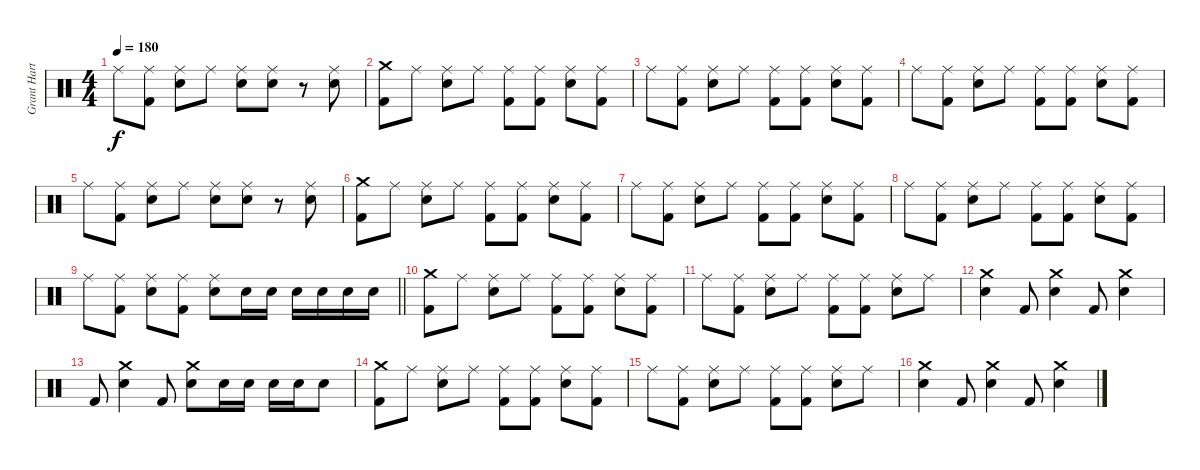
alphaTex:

\track ("Grant Hart - Drums" "Grant Hart") {instrument percussion}
\staff {score}
\articulation defaults
\ts (4 4)
\tempo 180
\clef neutral
\ks c "Ride (middle)".8{dy f}
("Ride (middle)" "Kick (hit) 2").8 ("Ride (middle)" "Electric Snare (hit)").8 "Ride (middle)".8 ("Ride (middle)" "Electric Snare (hit)").8 ("Ride (middle)" "Electric Snare (hit)").8 r.8 ("Ride (middle)" "Electric Snare (hit)").8 |
("Crash medium (hit)" "Kick (hit) 2").8 "Ride (middle)".8 ("Ride (middle)" "Electric Snare (hit)").8 "Ride (middle)".8 ("Ride (middle)" "Kick (hit) 2").8 ("Ride (middle)" "Kick (hit) 2").8 ("Ride (middle)" "Electric Snare (hit)").8 ("Ride (middle)" "Kick (hit) 2").8 |
"Ride (middle)".8 ("Ride (middle)" "Kick (hit) 2").8 ("Ride (middle)" "Electric Snare (hit)").8 "Ride (middle)".8 ("Ride (middle)" "Kick (hit) 2").8 ("Ride (middle)" "Kick (hit) 2").8 ("Ride (middle)" "Electric Snare (hit)").8 ("Ride (middle)" "Kick (hit) 2").8 |
"Ride (middle)".8 ("Ride (middle)" "Kick (hit) 2").8 ("Ride (middle)" "Electric Snare (hit)").8 "Ride (middle)".8 ("Ride (middle)" "Kick (hit) 2").8 ("Ride (middle)" "Kick (hit) 2").8 ("Ride (middle)" "Electric Snare (hit)").8 ("Ride (middle)" "Kick (hit) 2").8 |
"Ride (middle)".8 ("Ride (middle)" "Kick (hit) 2").8 ("Ride (middle)" "Electric Snare (hit)").8 "Ride (middle)".8 ("Ride (middle)" "Electric Snare (hit)").8 ("Ride (middle)" "Electric Snare (hit)").8 r.8 ("Ride (middle)" "Electric Snare (hit)").8 |
("Crash medium (hit)" "Kick (hit) 2").8 "Ride (middle)".8 ("Ride (middle)" "Electric Snare (hit)").8 "Ride (middle)".8 ("Ride (middle)" "Kick (hit) 2").8 ("Ride (middle)" "Kick (hit) 2").8 ("Ride (middle)" "Electric Snare (hit)").8 ("Ride (middle)" "Kick (hit) 2").8 |
"Ride (middle)".8 ("Ride (middle)" "Kick (hit) 2").8 ("Ride (middle)" "Electric Snare (hit)").8 "Ride (middle)".8 ("Ride (middle)" "Kick (hit) 2").8 ("Ride (middle)" "Kick (hit) 2").8 ("Ride (middle)" "Electric Snare (hit)").8 ("Ride (middle)" "Kick (hit) 2").8 |
"Ride (middle)".8 ("Ride (middle)" "Kick (hit) 2").8 ("Ride (middle)" "Electric Snare (hit)").8 "Ride (middle)".8 ("Ride (middle)" "Kick (hit) 2").8 ("Ride (middle)" "Kick (hit) 2").8 ("Ride (middle)" "Electric Snare (hit)").8 ("Ride (middle)" "Kick (hit) 2").8 |
\barLineRight lightlight "Ride (middle)".8
("Ride (middle)" "Kick (hit) 2").8 ("Ride (middle)" "Electric Snare (hit)").8 ("Ride (middle)" "Kick (hit) 2").8 ("Ride (middle)" "Electric Snare (hit)").8 "Electric Snare (hit)".16 "Electric Snare (hit)".16 "Electric Snare (hit)".16 "Electric Snare (hit)".16 "Electric Snare (hit)".16 "Electric Snare (hit)".16 |
("Crash medium (hit)" "Kick (hit) 2").8 "Ride (middle)".8 ("Ride (middle)" "Electric Snare (hit)").8 "Ride (middle)".8 ("Ride (middle)" "Kick (hit) 2").8 ("Ride (middle)" "Kick (hit) 2").8 ("Ride (middle)" "Electric Snare (hit)").8 ("Ride (middle)" "Kick (hit) 2").8 |
"Ride (middle)".8 ("Ride (middle)" "Kick (hit) 2").8 ("Ride (middle)" "Electric Snare (hit)").8 "Ride (middle)".8 ("Ride (middle)" "Kick (hit) 2").8 ("Ride (middle)" "Kick (hit) 2").8 ("Ride (middle)" "Electric Snare (hit)").8 "Ride (middle)".8 |
("Crash medium (hit)" "Electric Snare (hit)").4 "Kick (hit) 2".8 ("Crash medium (hit)" "Electric Snare (hit)").4 "Kick (hit) 2".8 ("Crash medium (hit)" "Electric Snare (hit)").4 |
"Kick (hit) 2".8 ("Crash medium (hit)" "Electric Snare (hit)").4 "Kick (hit) 2".8 ("Crash medium (hit)" "Electric Snare (hit)").8 "Electric Snare (hit)".16 "Electric Snare (hit)".16 "Electric Snare (hit)".16 "Electric Snare (hit)".16 "Electric Snare (hit)".8 |
("Crash medium (hit)" "Kick (hit) 2").8 "Ride (middle)".8 ("Ride (middle)" "Electric Snare (hit)").8 "Ride (middle)".8 ("Ride (middle)" "Kick (hit) 2").8 ("Ride (middle)" "Kick (hit) 2").8 ("Ride (middle)" "Electric Snare (hit)").8 ("Ride (middle)" "Kick (hit) 2").8 |
"Ride (middle)".8 ("Ride (middle)" "Kick (hit) 2").8 ("Ride (middle)" "Electric Snare (hit)").8 "Ride (middle)".8 ("Ride (middle)" "Kick (hit) 2").8 ("Ride (middle)" "Kick (hit) 2").8 ("Ride (middle)" "Electric Snare (hit)").8 "Ride (middle)".8 |
("Crash medium (hit)" "Electric Snare (hit)").4 "Kick (hit) 2".8 ("Crash medium (hit)" "Electric Snare (hit)").4 "Kick (hit) 2".8 ("Crash medium (hit)" "Electric Snare (hit)").4
